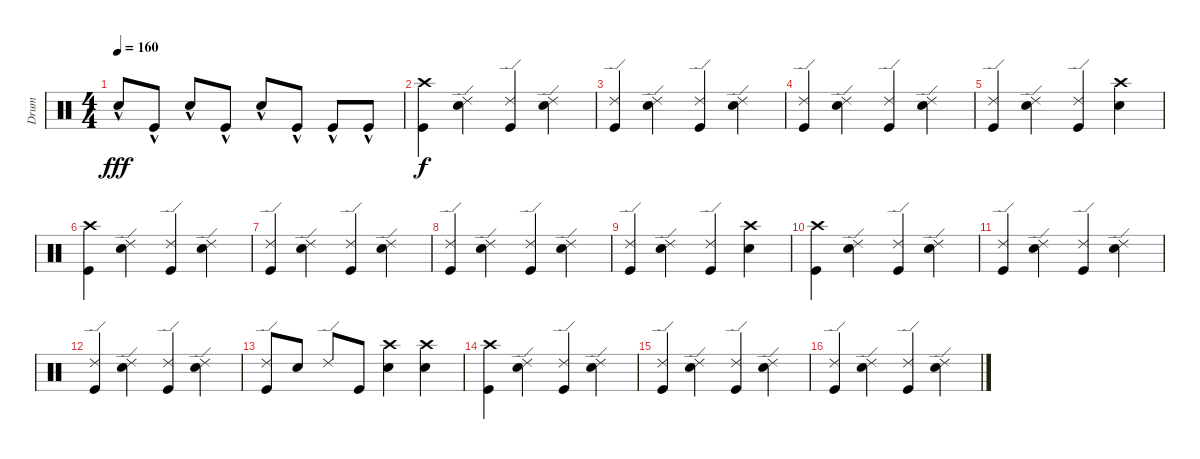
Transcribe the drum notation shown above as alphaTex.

\track ("Drum" "Drum") {instrument percussion}
\staff {score}
\articulation defaults
\ts (4 4)
\tempo 160
\clef neutral
\ks c "Snare (hit) 2"{hac}.8{dy fff} "Kick (hit)"{hac}.8 "Snare (hit) 2"{hac}.8 "Kick (hit)"{hac}.8 "Snare (hit) 2"{hac}.8 "Kick (hit)"{hac}.8 "Kick (hit)"{hac}.8 "Kick (hit)"{hac}.8
|
("Crash high (hit)" "Kick (hit)").4{dy f} ("Ride (edge) 2" "Snare (hit) 2").4 ("Ride (edge) 2" "Kick (hit)").4 ("Ride (edge) 2" "Snare (hit) 2").4 |
("Ride (edge) 2" "Kick (hit)").4 ("Ride (edge) 2" "Snare (hit) 2").4 ("Ride (edge) 2" "Kick (hit)").4 ("Ride (edge) 2" "Snare (hit) 2").4 |
("Ride (edge) 2" "Kick (hit)").4 ("Ride (edge) 2" "Snare (hit) 2").4 ("Ride (edge) 2" "Kick (hit)").4 ("Ride (edge) 2" "Snare (hit) 2").4 |
("Ride (edge) 2" "Kick (hit)").4 ("Ride (edge) 2" "Snare (hit) 2").4 ("Ride (edge) 2" "Kick (hit)").4 ("Crash high (hit)" "Snare (hit) 2").4 |
("Crash high (hit)" "Kick (hit)").4 ("Ride (edge) 2" "Snare (hit) 2").4 ("Ride (edge) 2" "Kick (hit)").4 ("Ride (edge) 2" "Snare (hit) 2").4 |
("Ride (edge) 2" "Kick (hit)").4 ("Ride (edge) 2" "Snare (hit) 2").4 ("Ride (edge) 2" "Kick (hit)").4 ("Ride (edge) 2" "Snare (hit) 2").4 |
("Ride (edge) 2" "Kick (hit)").4 ("Ride (edge) 2" "Snare (hit) 2").4 ("Ride (edge) 2" "Kick (hit)").4 ("Ride (edge) 2" "Snare (hit) 2").4 |
("Ride (edge) 2" "Kick (hit)").4 ("Ride (edge) 2" "Snare (hit) 2").4 ("Ride (edge) 2" "Kick (hit)").4 ("Crash high (hit)" "Snare (hit) 2").4 |
("Crash high (hit)" "Kick (hit)").4 ("Ride (edge) 2" "Snare (hit) 2").4 ("Ride (edge) 2" "Kick (hit)").4 ("Ride (edge) 2" "Snare (hit) 2").4 |
("Ride (edge) 2" "Kick (hit)").4 ("Ride (edge) 2" "Snare (hit) 2").4 ("Ride (edge) 2" "Kick (hit)").4 ("Ride (edge) 2" "Snare (hit) 2").4 |
("Ride (edge) 2" "Kick (hit)").4 ("Ride (edge) 2" "Snare (hit) 2").4 ("Ride (edge) 2" "Kick (hit)").4 ("Ride (edge) 2" "Snare (hit) 2").4 |
("Ride (edge) 2" "Kick (hit)").8 "Snare (hit) 2".8 "Ride (edge) 2".8 "Kick (hit)".8 ("Crash high (hit)" "Snare (hit) 2").4 ("Crash high (hit)" "Snare (hit) 2").4 |
("Crash high (hit)" "Kick (hit)").4 ("Ride (edge) 2" "Snare (hit) 2").4 ("Ride (edge) 2" "Kick (hit)").4 ("Ride (edge) 2" "Snare (hit) 2").4 |
("Ride (edge) 2" "Kick (hit)").4 ("Ride (edge) 2" "Snare (hit) 2").4 ("Ride (edge) 2" "Kick (hit)").4 ("Ride (edge) 2" "Snare (hit) 2").4 |
("Ride (edge) 2" "Kick (hit)").4 ("Ride (edge) 2" "Snare (hit) 2").4 ("Ride (edge) 2" "Kick (hit)").4 ("Ride (edge) 2" "Snare (hit) 2").4
